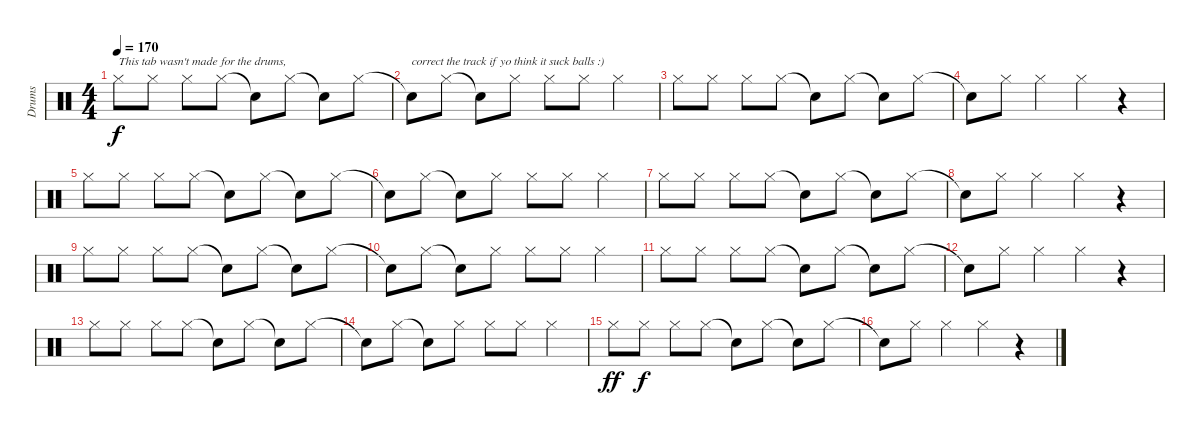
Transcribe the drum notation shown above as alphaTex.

\track ("Drums" "Drums") {mute instrument percussion}
\staff {score}
\articulation defaults
\ts (4 4)
\tempo 170
\clef neutral
\ks c "Hi-Hat (closed)".8{txt "This tab wasn't made for the drums," dy f} "Hi-Hat (closed)".8 "Hi-Hat (closed)".8 "Hi-Hat (closed)".8 "Snare (hit)"{t}.8 "Hi-Hat (closed)".8 "Snare (hit)"{t}.8 "Hi-Hat (closed)".8
|
"Snare (hit)"{t}.8{txt "correct the track if yo think it suck balls :)"} "Hi-Hat (closed)".8 "Snare (hit)"{t}.8 "Hi-Hat (closed)".8 "Hi-Hat (closed)".8 "Hi-Hat (closed)".8 "Hi-Hat (closed)".4 |
"Hi-Hat (closed)".8 "Hi-Hat (closed)".8 "Hi-Hat (closed)".8 "Hi-Hat (closed)".8 "Snare (hit)"{t}.8 "Hi-Hat (closed)".8 "Snare (hit)"{t}.8 "Hi-Hat (closed)".8 |
"Snare (hit)"{t}.8 "Hi-Hat (closed)".8 "Hi-Hat (closed)".4 "Hi-Hat (closed)".4 r.4 |
"Hi-Hat (closed)".8 "Hi-Hat (closed)".8 "Hi-Hat (closed)".8 "Hi-Hat (closed)".8 "Snare (hit)"{t}.8 "Hi-Hat (closed)".8 "Snare (hit)"{t}.8 "Hi-Hat (closed)".8 |
"Snare (hit)"{t}.8 "Hi-Hat (closed)".8 "Snare (hit)"{t}.8 "Hi-Hat (closed)".8 "Hi-Hat (closed)".8 "Hi-Hat (closed)".8 "Hi-Hat (closed)".4 |
"Hi-Hat (closed)".8 "Hi-Hat (closed)".8 "Hi-Hat (closed)".8 "Hi-Hat (closed)".8 "Snare (hit)"{t}.8 "Hi-Hat (closed)".8 "Snare (hit)"{t}.8 "Hi-Hat (closed)".8 |
"Snare (hit)"{t}.8 "Hi-Hat (closed)".8 "Hi-Hat (closed)".4 "Hi-Hat (closed)".4 r.4 |
"Hi-Hat (closed)".8 "Hi-Hat (closed)".8 "Hi-Hat (closed)".8 "Hi-Hat (closed)".8 "Snare (hit)"{t}.8 "Hi-Hat (closed)".8 "Snare (hit)"{t}.8 "Hi-Hat (closed)".8 |
"Snare (hit)"{t}.8 "Hi-Hat (closed)".8 "Snare (hit)"{t}.8 "Hi-Hat (closed)".8 "Hi-Hat (closed)".8 "Hi-Hat (closed)".8 "Hi-Hat (closed)".4 |
"Hi-Hat (closed)".8 "Hi-Hat (closed)".8 "Hi-Hat (closed)".8 "Hi-Hat (closed)".8 "Snare (hit)"{t}.8 "Hi-Hat (closed)".8 "Snare (hit)"{t}.8 "Hi-Hat (closed)".8 |
"Snare (hit)"{t}.8 "Hi-Hat (closed)".8 "Hi-Hat (closed)".4 "Hi-Hat (closed)".4 r.4 |
"Hi-Hat (closed)".8 "Hi-Hat (closed)".8 "Hi-Hat (closed)".8 "Hi-Hat (closed)".8 "Snare (hit)"{t}.8 "Hi-Hat (closed)".8 "Snare (hit)"{t}.8 "Hi-Hat (closed)".8 |
"Snare (hit)"{t}.8 "Hi-Hat (closed)".8 "Snare (hit)"{t}.8 "Hi-Hat (closed)".8 "Hi-Hat (closed)".8 "Hi-Hat (closed)".8 "Hi-Hat (closed)".4 |
"Hi-Hat (closed)".8{dy ff} "Hi-Hat (closed)".8{dy f} "Hi-Hat (closed)".8 "Hi-Hat (closed)".8 "Snare (hit)"{t}.8 "Hi-Hat (closed)".8 "Snare (hit)"{t}.8 "Hi-Hat (closed)".8 |
"Snare (hit)"{t}.8 "Hi-Hat (closed)".8 "Hi-Hat (closed)".4 "Hi-Hat (closed)".4 r.4
